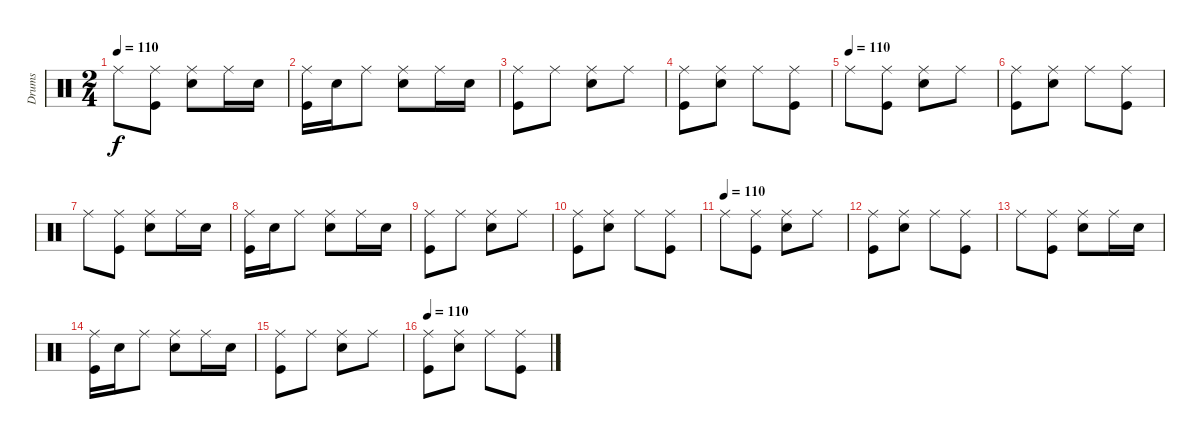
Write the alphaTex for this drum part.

\track ("Drums" "Drums") {instrument percussion}
\staff {score}
\articulation defaults
\ts (2 4)
\tempo 110
\clef neutral
\ks c "Ride (middle)".8{dy f}
("Ride (middle)" "Kick (hit)").8 ("Ride (middle)" "Snare (hit) 2").8 "Ride (middle)".16 "Snare (hit) 2".16 |
("Ride (middle)" "Kick (hit)").16 "Snare (hit) 2".16 "Ride (middle)".8 ("Ride (middle)" "Snare (hit) 2").8 "Ride (middle)".16 "Snare (hit) 2".16 |
("Ride (middle)" "Kick (hit)").8 "Ride (middle)".8 ("Ride (middle)" "Snare (hit) 2").8 "Ride (middle)".8 |
("Ride (middle)" "Kick (hit)").8 ("Ride (middle)" "Snare (hit) 2").8 "Ride (middle)".8 ("Ride (middle)" "Kick (hit)").8 |
\tempo (110)
"Ride (middle)".8 ("Ride (middle)" "Kick (hit)").8 ("Ride (middle)" "Snare (hit) 2").8 "Ride (middle)".8 |
("Ride (middle)" "Kick (hit)").8 ("Ride (middle)" "Snare (hit) 2").8 "Ride (middle)".8 ("Ride (middle)" "Kick (hit)").8 |
"Ride (middle)".8 ("Ride (middle)" "Kick (hit)").8 ("Ride (middle)" "Snare (hit) 2").8 "Ride (middle)".16 "Snare (hit) 2".16 |
("Ride (middle)" "Kick (hit)").16 "Snare (hit) 2".16 "Ride (middle)".8 ("Ride (middle)" "Snare (hit) 2").8 "Ride (middle)".16 "Snare (hit) 2".16 |
("Ride (middle)" "Kick (hit)").8 "Ride (middle)".8 ("Ride (middle)" "Snare (hit) 2").8 "Ride (middle)".8 |
("Ride (middle)" "Kick (hit)").8 ("Ride (middle)" "Snare (hit) 2").8 "Ride (middle)".8 ("Ride (middle)" "Kick (hit)").8 |
\tempo (110)
"Ride (middle)".8 ("Ride (middle)" "Kick (hit)").8 ("Ride (middle)" "Snare (hit) 2").8 "Ride (middle)".8 |
("Ride (middle)" "Kick (hit)").8 ("Ride (middle)" "Snare (hit) 2").8 "Ride (middle)".8 ("Ride (middle)" "Kick (hit)").8 |
"Ride (middle)".8 ("Ride (middle)" "Kick (hit)").8 ("Ride (middle)" "Snare (hit) 2").8 "Ride (middle)".16 "Snare (hit) 2".16 |
("Ride (middle)" "Kick (hit)").16 "Snare (hit) 2".16 "Ride (middle)".8 ("Ride (middle)" "Snare (hit) 2").8 "Ride (middle)".16 "Snare (hit) 2".16 |
("Ride (middle)" "Kick (hit)").8 "Ride (middle)".8 ("Ride (middle)" "Snare (hit) 2").8 "Ride (middle)".8 |
\tempo 110
("Ride (middle)" "Kick (hit)").8 ("Ride (middle)" "Snare (hit) 2").8 "Ride (middle)".8 ("Ride (middle)" "Kick (hit)").8
